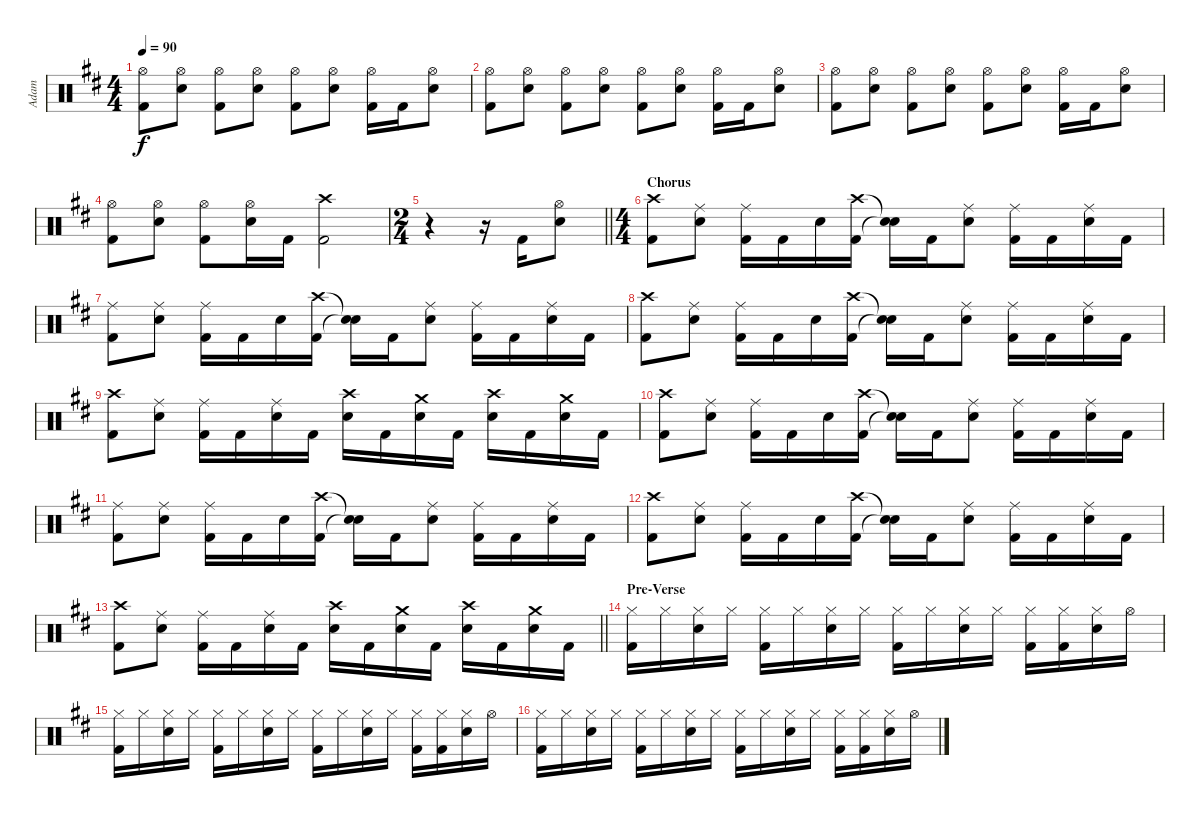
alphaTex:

\track ("Adam" "Adam") {instrument percussion}
\staff {score}
\articulation defaults
\ts (4 4)
\tempo 90
\clef neutral
\ks d
("Hi-Hat (open)" "Kick (hit) 2").8{dy f} ("Hi-Hat (open)" "Snare (hit) 2").8 ("Hi-Hat (open)" "Kick (hit) 2").8 ("Hi-Hat (open)" "Snare (hit) 2").8 ("Hi-Hat (open)" "Kick (hit) 2").8 ("Hi-Hat (open)" "Snare (hit) 2").8 ("Hi-Hat (open)" "Kick (hit) 2").16 "Kick (hit) 2".16 ("Hi-Hat (open)" "Snare (hit) 2").8 |
("Hi-Hat (open)" "Kick (hit) 2").8 ("Hi-Hat (open)" "Snare (hit) 2").8 ("Hi-Hat (open)" "Kick (hit) 2").8 ("Hi-Hat (open)" "Snare (hit) 2").8 ("Hi-Hat (open)" "Kick (hit) 2").8 ("Hi-Hat (open)" "Snare (hit) 2").8 ("Hi-Hat (open)" "Kick (hit) 2").16 "Kick (hit) 2".16 ("Hi-Hat (open)" "Snare (hit) 2").8 |
("Hi-Hat (open)" "Kick (hit) 2").8 ("Hi-Hat (open)" "Snare (hit) 2").8 ("Hi-Hat (open)" "Kick (hit) 2").8 ("Hi-Hat (open)" "Snare (hit) 2").8 ("Hi-Hat (open)" "Kick (hit) 2").8 ("Hi-Hat (open)" "Snare (hit) 2").8 ("Hi-Hat (open)" "Kick (hit) 2").16 "Kick (hit) 2".16 ("Hi-Hat (open)" "Snare (hit) 2").8 |
("Hi-Hat (open)" "Kick (hit) 2").8 ("Hi-Hat (open)" "Snare (hit) 2").8 ("Hi-Hat (open)" "Kick (hit) 2").8 ("Hi-Hat (open)" "Snare (hit) 2").16 "Kick (hit) 2".16 ("Crash high (hit)" "Kick (hit) 2").2 |
\ts (2 4)
\barLineRight lightlight
r.4 r.16 "Kick (hit) 2".16 ("Hi-Hat (open)" "Snare (hit) 2").8 |
\ts (4 4)
\section ("" "Chorus")
("Crash high (hit)" "Kick (hit) 2").8 ("Ride (middle)" "Snare (hit) 2").8 ("Ride (middle)" "Kick (hit) 2").16 "Kick (hit) 2".16 "Snare (hit) 2".16 ("Crash high (hit)" "Kick (hit) 2").16 ("Snare (hit)"{t} "Snare (hit)"{t}).16 "Kick (hit) 2".16 ("Ride (middle)" "Snare (hit) 2").8 ("Ride (middle)" "Kick (hit) 2").16 "Kick (hit) 2".16 ("Ride (middle)" "Snare (hit) 2").16 "Kick (hit) 2".16 |
("Ride (middle)" "Kick (hit) 2").8 ("Ride (middle)" "Snare (hit) 2").8 ("Ride (middle)" "Kick (hit) 2").16 "Kick (hit) 2".16 "Snare (hit) 2".16 ("Crash high (hit)" "Kick (hit) 2").16 ("Snare (hit)"{t} "Snare (hit)"{t}).16 "Kick (hit) 2".16 ("Ride (middle)" "Snare (hit) 2").8 ("Ride (middle)" "Kick (hit) 2").16 "Kick (hit) 2".16 ("Ride (middle)" "Snare (hit) 2").16 "Kick (hit) 2".16 |
("Crash high (hit)" "Kick (hit) 2").8 ("Ride (middle)" "Snare (hit) 2").8 ("Ride (middle)" "Kick (hit) 2").16 "Kick (hit) 2".16 "Snare (hit) 2".16 ("Crash high (hit)" "Kick (hit) 2").16 ("Snare (hit)"{t} "Snare (hit)"{t}).16 "Kick (hit) 2".16 ("Ride (middle)" "Snare (hit) 2").8 ("Ride (middle)" "Kick (hit) 2").16 "Kick (hit) 2".16 ("Ride (middle)" "Snare (hit) 2").16 "Kick (hit) 2".16 |
("Crash high (hit)" "Kick (hit) 2").8 ("Ride (middle)" "Snare (hit) 2").8 ("Ride (middle)" "Kick (hit) 2").16 "Kick (hit) 2".16 ("Ride (middle)" "Snare (hit) 2").16 "Kick (hit) 2".16 ("Crash high (hit)" "Snare (hit) 2").16 "Kick (hit) 2".16 ("Crash medium (hit)" "Snare (hit) 2").16 "Kick (hit) 2".16 ("Crash high (hit)" "Snare (hit) 2").16 "Kick (hit) 2".16 ("Crash medium (hit)" "Snare (hit) 2").16 "Kick (hit) 2".16 |
("Crash high (hit)" "Kick (hit) 2").8 ("Ride (middle)" "Snare (hit) 2").8 ("Ride (middle)" "Kick (hit) 2").16 "Kick (hit) 2".16 "Snare (hit) 2".16 ("Crash high (hit)" "Kick (hit) 2").16 ("Snare (hit)"{t} "Snare (hit)"{t}).16 "Kick (hit) 2".16 ("Ride (middle)" "Snare (hit) 2").8 ("Ride (middle)" "Kick (hit) 2").16 "Kick (hit) 2".16 ("Ride (middle)" "Snare (hit) 2").16 "Kick (hit) 2".16 |
("Ride (middle)" "Kick (hit) 2").8 ("Ride (middle)" "Snare (hit) 2").8 ("Ride (middle)" "Kick (hit) 2").16 "Kick (hit) 2".16 "Snare (hit) 2".16 ("Crash high (hit)" "Kick (hit) 2").16 ("Snare (hit)"{t} "Snare (hit)"{t}).16 "Kick (hit) 2".16 ("Ride (middle)" "Snare (hit) 2").8 ("Ride (middle)" "Kick (hit) 2").16 "Kick (hit) 2".16 ("Ride (middle)" "Snare (hit) 2").16 "Kick (hit) 2".16 |
("Crash high (hit)" "Kick (hit) 2").8 ("Ride (middle)" "Snare (hit) 2").8 ("Ride (middle)" "Kick (hit) 2").16 "Kick (hit) 2".16 "Snare (hit) 2".16 ("Crash high (hit)" "Kick (hit) 2").16 ("Snare (hit)"{t} "Snare (hit)"{t}).16 "Kick (hit) 2".16 ("Ride (middle)" "Snare (hit) 2").8 ("Ride (middle)" "Kick (hit) 2").16 "Kick (hit) 2".16 ("Ride (middle)" "Snare (hit) 2").16 "Kick (hit) 2".16 |
\barLineRight lightlight
("Crash high (hit)" "Kick (hit) 2").8 ("Ride (middle)" "Snare (hit) 2").8 ("Ride (middle)" "Kick (hit) 2").16 "Kick (hit) 2".16 ("Ride (middle)" "Snare (hit) 2").16 "Kick (hit) 2".16 ("Crash high (hit)" "Snare (hit) 2").16 "Kick (hit) 2".16 ("Crash medium (hit)" "Snare (hit) 2").16 "Kick (hit) 2".16 ("Crash high (hit)" "Snare (hit) 2").16 "Kick (hit) 2".16 ("Crash medium (hit)" "Snare (hit) 2").16 "Kick (hit) 2".16 |
\section ("" "Pre-Verse")
("Hi-Hat (closed)" "Kick (hit) 2").16 "Hi-Hat (closed)".16 ("Hi-Hat (closed)" "Snare (hit) 2").16 "Hi-Hat (closed)".16 ("Hi-Hat (closed)" "Kick (hit) 2").16 "Hi-Hat (closed)".16 ("Hi-Hat (closed)" "Snare (hit) 2").16 "Hi-Hat (closed)".16 ("Hi-Hat (closed)" "Kick (hit) 2").16 "Hi-Hat (closed)".16 ("Hi-Hat (closed)" "Snare (hit) 2").16 "Hi-Hat (closed)".16 ("Hi-Hat (closed)" "Kick (hit) 2").16 ("Hi-Hat (closed)" "Kick (hit) 2").16 ("Hi-Hat (closed)" "Snare (hit) 2").16 "Hi-Hat (open)".16 |
("Hi-Hat (closed)" "Kick (hit) 2").16 "Hi-Hat (closed)".16 ("Hi-Hat (closed)" "Snare (hit) 2").16 "Hi-Hat (closed)".16 ("Hi-Hat (closed)" "Kick (hit) 2").16 "Hi-Hat (closed)".16 ("Hi-Hat (closed)" "Snare (hit) 2").16 "Hi-Hat (closed)".16 ("Hi-Hat (closed)" "Kick (hit) 2").16 "Hi-Hat (closed)".16 ("Hi-Hat (closed)" "Snare (hit) 2").16 "Hi-Hat (closed)".16 ("Hi-Hat (closed)" "Kick (hit) 2").16 ("Hi-Hat (closed)" "Kick (hit) 2").16 ("Hi-Hat (closed)" "Snare (hit) 2").16 "Hi-Hat (open)".16 |
("Hi-Hat (closed)" "Kick (hit) 2").16 "Hi-Hat (closed)".16 ("Hi-Hat (closed)" "Snare (hit) 2").16 "Hi-Hat (closed)".16 ("Hi-Hat (closed)" "Kick (hit) 2").16 "Hi-Hat (closed)".16 ("Hi-Hat (closed)" "Snare (hit) 2").16 "Hi-Hat (closed)".16 ("Hi-Hat (closed)" "Kick (hit) 2").16 "Hi-Hat (closed)".16 ("Hi-Hat (closed)" "Snare (hit) 2").16 "Hi-Hat (closed)".16 ("Hi-Hat (closed)" "Kick (hit) 2").16 ("Hi-Hat (closed)" "Kick (hit) 2").16 ("Hi-Hat (closed)" "Snare (hit) 2").16 "Hi-Hat (open)".16
